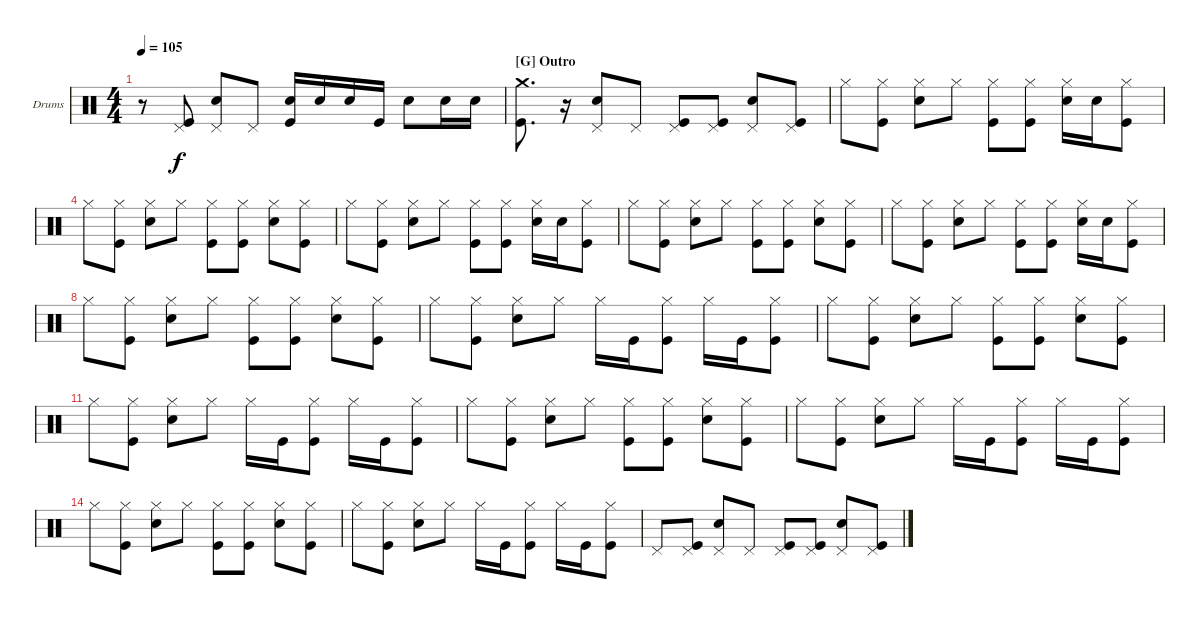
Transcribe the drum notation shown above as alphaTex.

\bracketExtendMode nobrackets
\firstSystemTrackNameOrientation horizontal
\otherSystemsTrackNameOrientation horizontal
\defaultBarNumberDisplay FirstOfSystem
\track ("Drumkit" "Drums") {instrument percussion}
\staff {score}
\articulation defaults
\ts (4 4)
\tempo 105
\clef neutral
\ks c
r.8{dy f} ("Kick (hit)" "Pedal Hi-Hat (hit)").8 ("Snare (hit) 2" "Pedal Hi-Hat (hit)").8 "Pedal Hi-Hat (hit)".8 ("Kick (hit)" "Snare (hit) 2").16 "Snare (hit) 2".16 "Snare (hit) 2".16 "Kick (hit)".16 "Snare (hit) 2".8 "Snare (hit) 2".16 "Snare (hit) 2".16 |
\section ("G" "Outro")
("Kick (hit)" "Crash medium (hit)").8{d} r.16 ("Snare (hit) 2" "Pedal Hi-Hat (hit)").8 "Pedal Hi-Hat (hit)".8 ("Kick (hit)" "Pedal Hi-Hat (hit)").8 ("Kick (hit)" "Pedal Hi-Hat (hit)").8 ("Snare (hit) 2" "Pedal Hi-Hat (hit)").8 ("Kick (hit)" "Pedal Hi-Hat (hit)").8 |
"Hi-Hat (closed)".8 ("Kick (hit)" "Hi-Hat (closed)").8 ("Snare (hit) 2" "Hi-Hat (closed)").8 "Hi-Hat (closed)".8 ("Kick (hit)" "Hi-Hat (closed)").8 ("Kick (hit)" "Hi-Hat (closed)").8 ("Snare (hit) 2" "Hi-Hat (closed)").16 "Snare (hit) 2".16 ("Kick (hit)" "Hi-Hat (closed)").8 |
"Hi-Hat (closed)".8 ("Kick (hit)" "Hi-Hat (closed)").8 ("Snare (hit) 2" "Hi-Hat (closed)").8 "Hi-Hat (closed)".8 ("Kick (hit)" "Hi-Hat (closed)").8 ("Kick (hit)" "Hi-Hat (closed)").8 ("Snare (hit) 2" "Hi-Hat (closed)").8 ("Kick (hit)" "Hi-Hat (closed)").8 |
"Hi-Hat (closed)".8 ("Kick (hit)" "Hi-Hat (closed)").8 ("Snare (hit) 2" "Hi-Hat (closed)").8 "Hi-Hat (closed)".8 ("Kick (hit)" "Hi-Hat (closed)").8 ("Kick (hit)" "Hi-Hat (closed)").8 ("Snare (hit) 2" "Hi-Hat (closed)").16 "Snare (hit) 2".16 ("Kick (hit)" "Hi-Hat (closed)").8 |
\scale
0.177419 "Hi-Hat (closed)".8 ("Kick (hit)" "Hi-Hat (closed)").8 ("Snare (hit) 2" "Hi-Hat (closed)").8 "Hi-Hat (closed)".8 ("Kick (hit)" "Hi-Hat (closed)").8 ("Kick (hit)" "Hi-Hat (closed)").8 ("Snare (hit) 2" "Hi-Hat (closed)").8 ("Kick (hit)" "Hi-Hat (closed)").8 |
\scale
0.209107 "Hi-Hat (closed)".8 ("Kick (hit)" "Hi-Hat (closed)").8 ("Snare (hit) 2" "Hi-Hat (closed)").8 "Hi-Hat (closed)".8 ("Kick (hit)" "Hi-Hat (closed)").8 ("Kick (hit)" "Hi-Hat (closed)").8 ("Snare (hit) 2" "Hi-Hat (closed)").16 "Snare (hit) 2".16 ("Kick (hit)" "Hi-Hat (closed)").8 |
\scale
0.33928 "Hi-Hat (closed)".8 ("Kick (hit)" "Hi-Hat (closed)").8 ("Snare (hit) 2" "Hi-Hat (closed)").8 "Hi-Hat (closed)".8 ("Kick (hit)" "Hi-Hat (closed)").8 ("Kick (hit)" "Hi-Hat (closed)").8 ("Snare (hit) 2" "Hi-Hat (closed)").8 ("Kick (hit)" "Hi-Hat (closed)").8 |
\scale
0.274194 "Hi-Hat (closed)".8 ("Kick (hit)" "Hi-Hat (closed)").8 ("Snare (hit) 2" "Hi-Hat (closed)").8 "Hi-Hat (closed)".8 "Hi-Hat (closed)".16 "Kick (hit)".16 ("Kick (hit)" "Hi-Hat (closed)").8 "Hi-Hat (closed)".16 "Kick (hit)".16 ("Kick (hit)" "Hi-Hat (closed)").8 |
"Hi-Hat (closed)".8 ("Kick (hit)" "Hi-Hat (closed)").8 ("Snare (hit) 2" "Hi-Hat (closed)").8 "Hi-Hat (closed)".8 ("Kick (hit)" "Hi-Hat (closed)").8 ("Kick (hit)" "Hi-Hat (closed)").8 ("Snare (hit) 2" "Hi-Hat (closed)").8 ("Kick (hit)" "Hi-Hat (closed)").8 |
"Hi-Hat (closed)".8 ("Kick (hit)" "Hi-Hat (closed)").8 ("Snare (hit) 2" "Hi-Hat (closed)").8 "Hi-Hat (closed)".8 "Hi-Hat (closed)".16 "Kick (hit)".16 ("Kick (hit)" "Hi-Hat (closed)").8 "Hi-Hat (closed)".16 "Kick (hit)".16 ("Kick (hit)" "Hi-Hat (closed)").8 |
"Hi-Hat (closed)".8 ("Kick (hit)" "Hi-Hat (closed)").8 ("Snare (hit) 2" "Hi-Hat (closed)").8 "Hi-Hat (closed)".8 ("Kick (hit)" "Hi-Hat (closed)").8 ("Kick (hit)" "Hi-Hat (closed)").8 ("Snare (hit) 2" "Hi-Hat (closed)").8 ("Kick (hit)" "Hi-Hat (closed)").8 |
"Hi-Hat (closed)".8 ("Kick (hit)" "Hi-Hat (closed)").8 ("Snare (hit) 2" "Hi-Hat (closed)").8 "Hi-Hat (closed)".8 "Hi-Hat (closed)".16 "Kick (hit)".16 ("Kick (hit)" "Hi-Hat (closed)").8 "Hi-Hat (closed)".16 "Kick (hit)".16 ("Kick (hit)" "Hi-Hat (closed)").8 |
"Hi-Hat (closed)".8 ("Kick (hit)" "Hi-Hat (closed)").8 ("Snare (hit) 2" "Hi-Hat (closed)").8 "Hi-Hat (closed)".8 ("Kick (hit)" "Hi-Hat (closed)").8 ("Kick (hit)" "Hi-Hat (closed)").8 ("Snare (hit) 2" "Hi-Hat (closed)").8 ("Kick (hit)" "Hi-Hat (closed)").8 |
"Hi-Hat (closed)".8 ("Kick (hit)" "Hi-Hat (closed)").8 ("Snare (hit) 2" "Hi-Hat (closed)").8 "Hi-Hat (closed)".8 "Hi-Hat (closed)".16 "Kick (hit)".16 ("Kick (hit)" "Hi-Hat (closed)").8 "Hi-Hat (closed)".16 "Kick (hit)".16 ("Kick (hit)" "Hi-Hat (closed)").8 |
"Pedal Hi-Hat (hit)".8 ("Kick (hit)" "Pedal Hi-Hat (hit)").8 ("Snare (hit) 2" "Pedal Hi-Hat (hit)").8 "Pedal Hi-Hat (hit)".8 ("Kick (hit)" "Pedal Hi-Hat (hit)").8 ("Kick (hit)" "Pedal Hi-Hat (hit)").8 ("Snare (hit) 2" "Pedal Hi-Hat (hit)").8 ("Kick (hit)" "Pedal Hi-Hat (hit)").8
